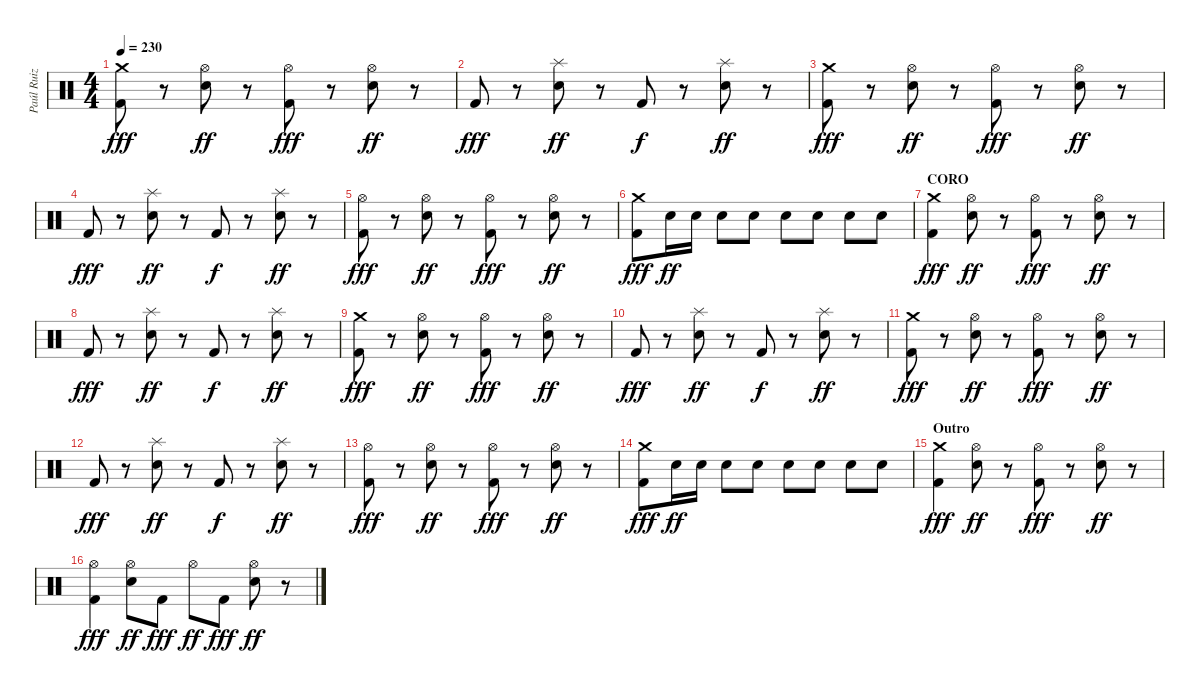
\track ("Paúl Ruiz" "Paúl Ruiz") {instrument percussion}
\staff {score}
\articulation defaults
\ts (4 4)
\tempo 230
\clef neutral
\ks c
("Crash medium (hit)" "Kick (hit) 2").8{dy fff} r.8 ("Hi-Hat (open)" "Snare (hit) 2").8{dy ff} r.8 ("Hi-Hat (open)" "Kick (hit) 2").8{dy fff} r.8 ("Hi-Hat (open)" "Snare (hit) 2").8{dy ff} r.8 |
"Kick (hit) 2".8{dy fff} r.8 ("Splash (hit)" "Snare (hit) 2").8{dy ff} r.8 "Kick (hit) 2".8{dy f} r.8 ("Splash (hit)" "Snare (hit) 2").8{dy ff} r.8 |
("Crash medium (hit)" "Kick (hit) 2").8{dy fff} r.8 ("Hi-Hat (open)" "Snare (hit) 2").8{dy ff} r.8 ("Hi-Hat (open)" "Kick (hit) 2").8{dy fff} r.8 ("Hi-Hat (open)" "Snare (hit) 2").8{dy ff} r.8 |
"Kick (hit) 2".8{dy fff} r.8 ("Splash (hit)" "Snare (hit) 2").8{dy ff} r.8 "Kick (hit) 2".8{dy f} r.8 ("Splash (hit)" "Snare (hit) 2").8{dy ff} r.8 |
("Hi-Hat (open)" "Kick (hit) 2").8{dy fff} r.8 ("Hi-Hat (open)" "Snare (hit) 2").8{dy ff} r.8 ("Hi-Hat (open)" "Kick (hit) 2").8{dy fff} r.8 ("Hi-Hat (open)" "Snare (hit) 2").8{dy ff} r.8 |
("Crash medium (hit)" "Kick (hit) 2").8{dy fff} "Snare (hit) 2".16{dy ff} "Snare (hit) 2".16 "Snare (hit) 2".8 "Snare (hit) 2".8 "Snare (hit) 2".8 "Snare (hit) 2".8 "Snare (hit) 2".8 "Snare (hit) 2".8 |
\section ("" "CORO")
("Crash medium (hit)" "Kick (hit) 2").4{dy fff} ("Hi-Hat (open)" "Snare (hit) 2").8{dy ff} r.8 ("Hi-Hat (open)" "Kick (hit) 2").8{dy fff} r.8 ("Hi-Hat (open)" "Snare (hit) 2").8{dy ff} r.8 |
"Kick (hit) 2".8{dy fff} r.8 ("Splash (hit)" "Snare (hit) 2").8{dy ff} r.8 "Kick (hit) 2".8{dy f} r.8 ("Splash (hit)" "Snare (hit) 2").8{dy ff} r.8 |
("Crash medium (hit)" "Kick (hit) 2").8{dy fff} r.8 ("Hi-Hat (open)" "Snare (hit) 2").8{dy ff} r.8 ("Hi-Hat (open)" "Kick (hit) 2").8{dy fff} r.8 ("Hi-Hat (open)" "Snare (hit) 2").8{dy ff} r.8 |
"Kick (hit) 2".8{dy fff} r.8 ("Splash (hit)" "Snare (hit) 2").8{dy ff} r.8 "Kick (hit) 2".8{dy f} r.8 ("Splash (hit)" "Snare (hit) 2").8{dy ff} r.8 |
("Crash medium (hit)" "Kick (hit) 2").8{dy fff} r.8 ("Hi-Hat (open)" "Snare (hit) 2").8{dy ff} r.8 ("Hi-Hat (open)" "Kick (hit) 2").8{dy fff} r.8 ("Hi-Hat (open)" "Snare (hit) 2").8{dy ff} r.8 |
"Kick (hit) 2".8{dy fff} r.8 ("Splash (hit)" "Snare (hit) 2").8{dy ff} r.8 "Kick (hit) 2".8{dy f} r.8 ("Splash (hit)" "Snare (hit) 2").8{dy ff} r.8 |
("Hi-Hat (open)" "Kick (hit) 2").8{dy fff} r.8 ("Hi-Hat (open)" "Snare (hit) 2").8{dy ff} r.8 ("Hi-Hat (open)" "Kick (hit) 2").8{dy fff} r.8 ("Hi-Hat (open)" "Snare (hit) 2").8{dy ff} r.8 |
("Crash medium (hit)" "Kick (hit) 2").8{dy fff} "Snare (hit) 2".16{dy ff} "Snare (hit) 2".16 "Snare (hit) 2".8 "Snare (hit) 2".8 "Snare (hit) 2".8 "Snare (hit) 2".8 "Snare (hit) 2".8 "Snare (hit) 2".8 |
\section ("" "Outro")
("Crash medium (hit)" "Kick (hit) 2").4{dy fff} ("Hi-Hat (open)" "Snare (hit) 2").8{dy ff} r.8 ("Hi-Hat (open)" "Kick (hit) 2").8{dy fff} r.8 ("Hi-Hat (open)" "Snare (hit) 2").8{dy ff} r.8 |
("Hi-Hat (open)" "Kick (hit) 2").4{dy fff} ("Hi-Hat (open)" "Snare (hit) 2").8{dy ff} "Kick (hit) 2".8{dy fff} "Hi-Hat (open)".8{dy ff} "Kick (hit) 2".8{dy fff} ("Hi-Hat (open)" "Snare (hit) 2").8{dy ff} r.8
